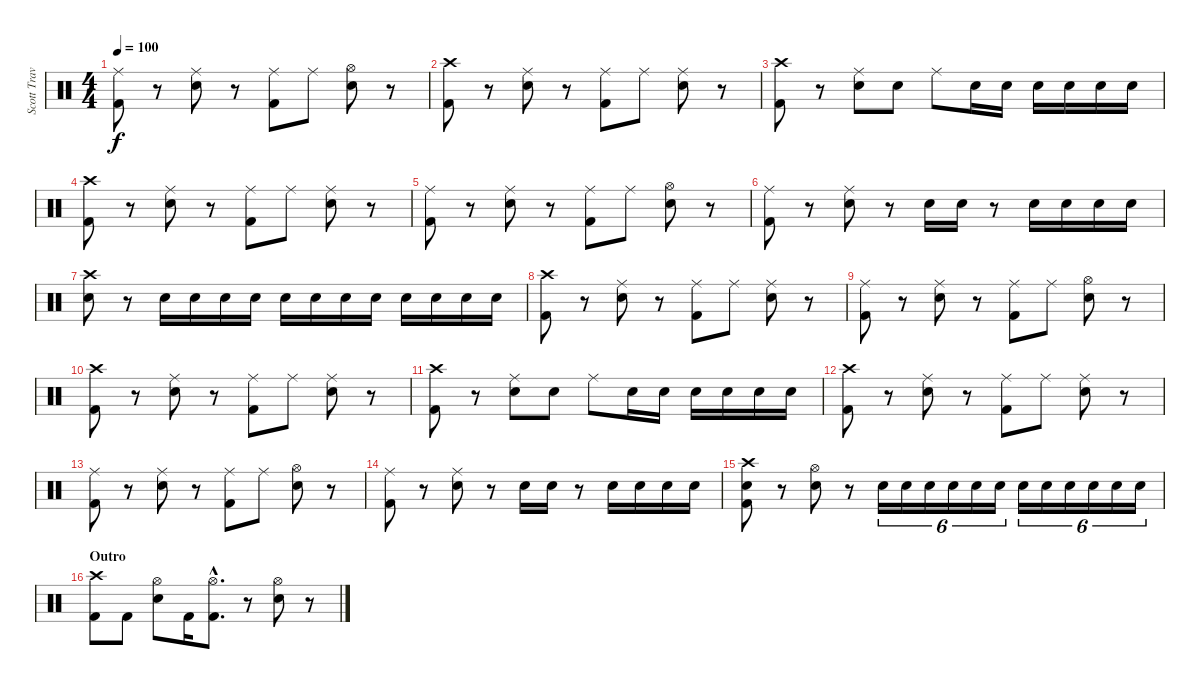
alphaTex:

\track ("Scott Travis" "Scott Trav") {instrument percussion}
\staff {score}
\articulation defaults
\ts (4 4)
\tempo 100
\clef neutral
\ks c
("Ride (middle)" "Kick (hit) 2").8{dy f} r.8 ("Ride (middle)" "Electric Snare (hit)").8 r.8 ("Ride (middle)" "Kick (hit) 2").8 "Ride (middle)".8 ("Hi-Hat (open)" "Electric Snare (hit)").8 r.8 |
("Crash high (hit)" "Kick (hit) 2").8 r.8 ("Ride (middle)" "Electric Snare (hit)").8 r.8 ("Ride (middle)" "Kick (hit) 2").8 "Ride (middle)".8 ("Ride (middle)" "Electric Snare (hit)").8 r.8 |
("Crash high (hit)" "Kick (hit) 2").8 r.8 ("Ride (middle)" "Electric Snare (hit)").8 "Electric Snare (hit)".8 "Ride (middle)".8 "Electric Snare (hit)".16 "Electric Snare (hit)".16 "Electric Snare (hit)".16 "Electric Snare (hit)".16 "Electric Snare (hit)".16 "Electric Snare (hit)".16 |
("Crash high (hit)" "Kick (hit) 2").8 r.8 ("Ride (middle)" "Electric Snare (hit)").8 r.8 ("Ride (middle)" "Kick (hit) 2").8 "Ride (middle)".8 ("Ride (middle)" "Electric Snare (hit)").8 r.8 |
("Ride (middle)" "Kick (hit) 2").8 r.8 ("Ride (middle)" "Electric Snare (hit)").8 r.8 ("Ride (middle)" "Kick (hit) 2").8 "Ride (middle)".8 ("Hi-Hat (open)" "Electric Snare (hit)").8 r.8 |
("Ride (middle)" "Kick (hit) 2").8 r.8 ("Ride (middle)" "Electric Snare (hit)").8 r.8 "Electric Snare (hit)".16 "Electric Snare (hit)".16 r.8 "Electric Snare (hit)".16 "Electric Snare (hit)".16 "Electric Snare (hit)".16 "Electric Snare (hit)".16 |
("Crash high (hit)" "Electric Snare (hit)").8 r.8 "Electric Snare (hit)".16 "Electric Snare (hit)".16 "Electric Snare (hit)".16 "Electric Snare (hit)".16 "Electric Snare (hit)".16 "Electric Snare (hit)".16 "Electric Snare (hit)".16 "Electric Snare (hit)".16 "Electric Snare (hit)".16 "Electric Snare (hit)".16 "Electric Snare (hit)".16 "Electric Snare (hit)".16 |
("Crash high (hit)" "Kick (hit) 2").8 r.8 ("Ride (middle)" "Electric Snare (hit)").8 r.8 ("Ride (middle)" "Kick (hit) 2").8 "Ride (middle)".8 ("Ride (middle)" "Electric Snare (hit)").8 r.8 |
("Ride (middle)" "Kick (hit) 2").8 r.8 ("Ride (middle)" "Electric Snare (hit)").8 r.8 ("Ride (middle)" "Kick (hit) 2").8 "Ride (middle)".8 ("Hi-Hat (open)" "Electric Snare (hit)").8 r.8 |
("Crash high (hit)" "Kick (hit) 2").8 r.8 ("Ride (middle)" "Electric Snare (hit)").8 r.8 ("Ride (middle)" "Kick (hit) 2").8 "Ride (middle)".8 ("Ride (middle)" "Electric Snare (hit)").8 r.8 |
("Crash high (hit)" "Kick (hit) 2").8 r.8 ("Ride (middle)" "Electric Snare (hit)").8 "Electric Snare (hit)".8 "Ride (middle)".8 "Electric Snare (hit)".16 "Electric Snare (hit)".16 "Electric Snare (hit)".16 "Electric Snare (hit)".16 "Electric Snare (hit)".16 "Electric Snare (hit)".16 |
("Crash high (hit)" "Kick (hit) 2").8 r.8 ("Ride (middle)" "Electric Snare (hit)").8 r.8 ("Ride (middle)" "Kick (hit) 2").8 "Ride (middle)".8 ("Ride (middle)" "Electric Snare (hit)").8 r.8 |
("Ride (middle)" "Kick (hit) 2").8 r.8 ("Ride (middle)" "Electric Snare (hit)").8 r.8 ("Ride (middle)" "Kick (hit) 2").8 "Ride (middle)".8 ("Hi-Hat (open)" "Electric Snare (hit)").8 r.8 |
("Ride (middle)" "Kick (hit) 2").8 r.8 ("Ride (middle)" "Electric Snare (hit)").8 r.8 "Electric Snare (hit)".16 "Electric Snare (hit)".16 r.8 "Electric Snare (hit)".16 "Electric Snare (hit)".16 "Electric Snare (hit)".16 "Electric Snare (hit)".16 |
("Crash high (hit)" "Kick (hit) 2" "Electric Snare (hit)").8 r.8 ("Hi-Hat (open)" "Electric Snare (hit)").8 r.8 "Electric Snare (hit)".16{tu (6 4)} "Electric Snare (hit)".16{tu (6 4)} "Electric Snare (hit)".16{tu (6 4)} "Electric Snare (hit)".16{tu (6 4)} "Electric Snare (hit)".16{tu (6 4)} "Electric Snare (hit)".16{tu (6 4)} "Electric Snare (hit)".16{tu (6 4)} "Electric Snare (hit)".16{tu (6 4)} "Electric Snare (hit)".16{tu (6 4)} "Electric Snare (hit)".16{tu (6 4)} "Electric Snare (hit)".16{tu (6 4)} "Electric Snare (hit)".16{tu (6 4)} |
\section ("" "Outro")
("Crash high (hit)" "Kick (hit) 2").8 "Kick (hit) 2".8 ("Hi-Hat (open)" "Electric Snare (hit)").8 "Kick (hit) 2".16 ("Hi-Hat (open)"{hac} "Kick (hit) 2"{hac}).8{d} r.8 ("Hi-Hat (open)" "Electric Snare (hit)").8 r.8
